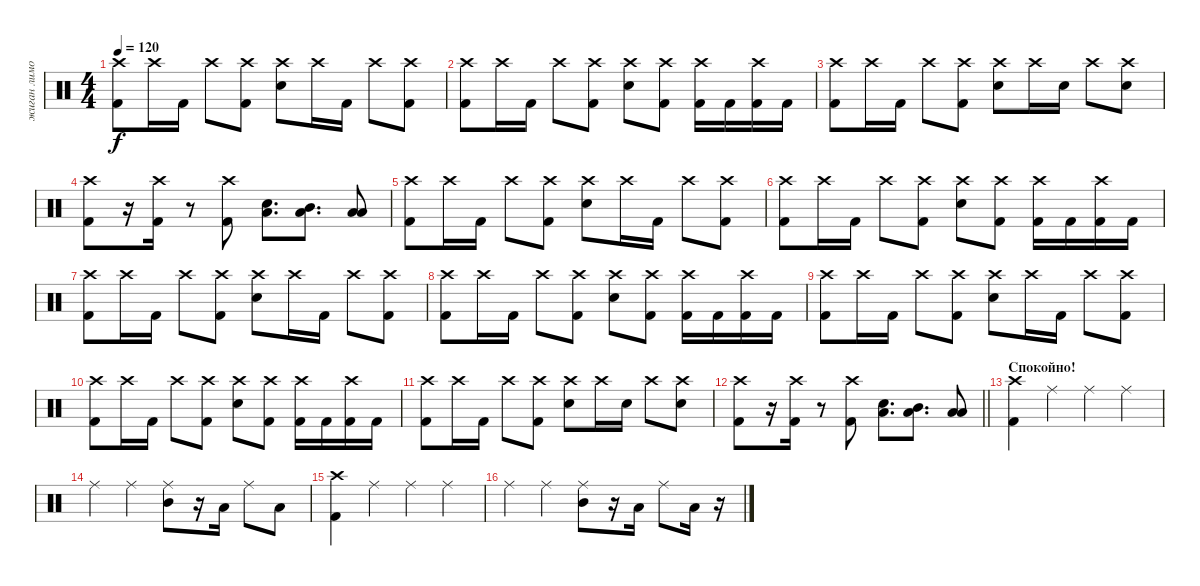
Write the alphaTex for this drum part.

\track ("жиган лимон" "жиган лимо") {instrument percussion}
\staff {score}
\articulation defaults
\ts (4 4)
\tempo 120
\clef neutral
\ks c
("Crash high (hit)" "Kick (hit) 2").8{dy f} "Crash high (hit)".16 "Kick (hit) 2".16 "Crash high (hit)".8 ("Crash high (hit)" "Kick (hit) 2").8 ("Snare (hit) 2" "Crash high (hit)").8 "Crash high (hit)".16 "Kick (hit) 2".16 "Crash high (hit)".8 ("Crash high (hit)" "Kick (hit) 2").8 |
("Crash high (hit)" "Kick (hit) 2").8 "Crash high (hit)".16 "Kick (hit) 2".16 "Crash high (hit)".8 ("Crash high (hit)" "Kick (hit) 2").8 ("Snare (hit) 2" "Crash high (hit)").8 ("Crash high (hit)" "Kick (hit) 2").8 ("Crash high (hit)" "Kick (hit) 2").16 "Kick (hit) 2".16 ("Crash high (hit)" "Kick (hit) 2").16 "Kick (hit) 2".16 |
("Crash high (hit)" "Kick (hit) 2").8 "Crash high (hit)".16 "Kick (hit) 2".16 "Crash high (hit)".8 ("Crash high (hit)" "Kick (hit) 2").8 ("Snare (hit) 2" "Crash high (hit)").8 "Crash high (hit)".16 "Snare (hit) 2".16 "Crash high (hit)".8 ("Crash high (hit)" "Snare (hit) 2").8 |
("Crash high (hit)" "Kick (hit) 2").8 r.16 ("Crash high (hit)" "Kick (hit) 2").16 r.8 ("Crash high (hit)" "Kick (hit) 2").8 ("Low Tom (hit)" "Snare (hit) 2").8{d} ("Mid Tom (hit)" "Low Tom (hit)").8{d} ("Low Tom (hit)" "Low Tom (hit)").8 |
("Crash high (hit)" "Kick (hit) 2").8 "Crash high (hit)".16 "Kick (hit) 2".16 "Crash high (hit)".8 ("Crash high (hit)" "Kick (hit) 2").8 ("Snare (hit) 2" "Crash high (hit)").8 "Crash high (hit)".16 "Kick (hit) 2".16 "Crash high (hit)".8 ("Crash high (hit)" "Kick (hit) 2").8 |
("Crash high (hit)" "Kick (hit) 2").8 "Crash high (hit)".16 "Kick (hit) 2".16 "Crash high (hit)".8 ("Crash high (hit)" "Kick (hit) 2").8 ("Snare (hit) 2" "Crash high (hit)").8 ("Crash high (hit)" "Kick (hit) 2").8 ("Crash high (hit)" "Kick (hit) 2").16 "Kick (hit) 2".16 ("Crash high (hit)" "Kick (hit) 2").16 "Kick (hit) 2".16 |
("Crash high (hit)" "Kick (hit) 2").8 "Crash high (hit)".16 "Kick (hit) 2".16 "Crash high (hit)".8 ("Crash high (hit)" "Kick (hit) 2").8 ("Snare (hit) 2" "Crash high (hit)").8 "Crash high (hit)".16 "Kick (hit) 2".16 "Crash high (hit)".8 ("Crash high (hit)" "Kick (hit) 2").8 |
("Crash high (hit)" "Kick (hit) 2").8 "Crash high (hit)".16 "Kick (hit) 2".16 "Crash high (hit)".8 ("Crash high (hit)" "Kick (hit) 2").8 ("Snare (hit) 2" "Crash high (hit)").8 ("Crash high (hit)" "Kick (hit) 2").8 ("Crash high (hit)" "Kick (hit) 2").16 "Kick (hit) 2".16 ("Crash high (hit)" "Kick (hit) 2").16 "Kick (hit) 2".16 |
("Crash high (hit)" "Kick (hit) 2").8 "Crash high (hit)".16 "Kick (hit) 2".16 "Crash high (hit)".8 ("Crash high (hit)" "Kick (hit) 2").8 ("Snare (hit) 2" "Crash high (hit)").8 "Crash high (hit)".16 "Kick (hit) 2".16 "Crash high (hit)".8 ("Crash high (hit)" "Kick (hit) 2").8 |
("Crash high (hit)" "Kick (hit) 2").8 "Crash high (hit)".16 "Kick (hit) 2".16 "Crash high (hit)".8 ("Crash high (hit)" "Kick (hit) 2").8 ("Snare (hit) 2" "Crash high (hit)").8 ("Crash high (hit)" "Kick (hit) 2").8 ("Crash high (hit)" "Kick (hit) 2").16 "Kick (hit) 2".16 ("Crash high (hit)" "Kick (hit) 2").16 "Kick (hit) 2".16 |
("Crash high (hit)" "Kick (hit) 2").8 "Crash high (hit)".16 "Kick (hit) 2".16 "Crash high (hit)".8 ("Crash high (hit)" "Kick (hit) 2").8 ("Snare (hit) 2" "Crash high (hit)").8 "Crash high (hit)".16 "Snare (hit) 2".16 "Crash high (hit)".8 ("Crash high (hit)" "Snare (hit) 2").8 |
\barLineRight lightlight
("Crash high (hit)" "Kick (hit) 2").8 r.16 ("Crash high (hit)" "Kick (hit) 2").16 r.8 ("Crash high (hit)" "Kick (hit) 2").8 ("Low Tom (hit)" "Snare (hit) 2").8{d} ("Mid Tom (hit)" "Low Tom (hit)").8{d} ("Low Tom (hit)" "Low Tom (hit)").8 |
\section ("" "Спокойно!")
("Crash high (hit)" "Kick (hit) 2").4 "Ride (middle)".4 "Ride (middle)".4 "Ride (middle)".4 |
"Ride (middle)".4 "Ride (middle)".4 ("Ride (middle)" "Mid Tom (hit)").8 r.16 "Low Tom (hit)".16 "Ride (middle)".8 "Low Floor Tom (hit)".8 |
("Crash high (hit)" "Kick (hit) 2").4 "Ride (middle)".4 "Ride (middle)".4 "Ride (middle)".4 |
"Ride (middle)".4 "Ride (middle)".4 ("Ride (middle)" "Mid Tom (hit)").8 r.16 "Low Tom (hit)".16 "Ride (middle)".8 "Low Floor Tom (hit)".16 r.16{volume 4}
